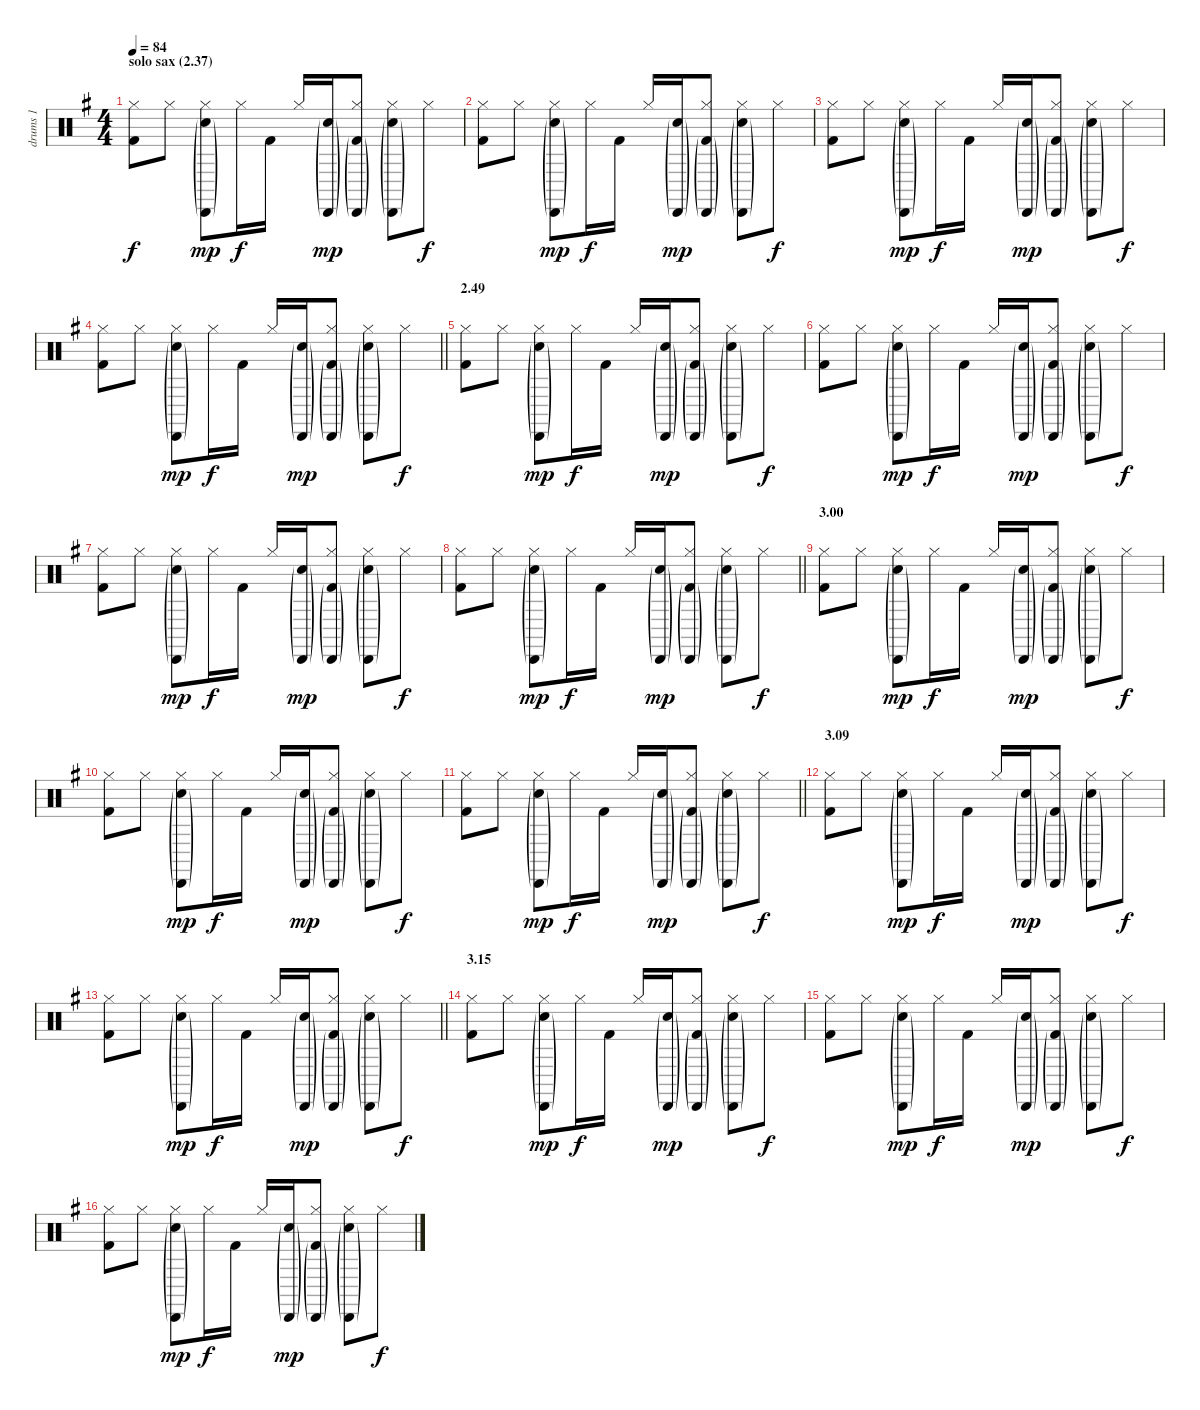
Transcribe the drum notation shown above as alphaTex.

\track ("drums 1" "drums 1") {instrument percussion}
\staff {score}
\articulation defaults
\ts (4 4)
\section ("" "solo sax (2.37)")
\tempo 84
\clef neutral
\ks g
("Hi-Hat (closed)" "Kick (hit) 2").8{dy f} "Hi-Hat (closed)".8 ("Cabasa (hit)"{g} "Hi-Hat (closed)" "Electric Snare (hit)"{g}).8{dy mp} "Hi-Hat (closed)".16{dy f} "Kick (hit) 2".16 "Hi-Hat (closed)".16 ("Cabasa (hit)"{g} "Electric Snare (hit)"{g}).16{dy mp} ("Cabasa (hit)"{g} "Hi-Hat (closed)" "Kick (hit) 2"{g}).8 ("Cabasa (hit)"{g} "Hi-Hat (closed)" "Electric Snare (hit)"{g}).8 "Hi-Hat (closed)".8{dy f} |
("Hi-Hat (closed)" "Kick (hit) 2").8 "Hi-Hat (closed)".8 ("Cabasa (hit)"{g} "Hi-Hat (closed)" "Electric Snare (hit)"{g}).8{dy mp} "Hi-Hat (closed)".16{dy f} "Kick (hit) 2".16 "Hi-Hat (closed)".16 ("Cabasa (hit)"{g} "Electric Snare (hit)"{g}).16{dy mp} ("Cabasa (hit)"{g} "Hi-Hat (closed)" "Kick (hit) 2"{g}).8 ("Cabasa (hit)"{g} "Hi-Hat (closed)" "Electric Snare (hit)"{g}).8 "Hi-Hat (closed)".8{dy f} |
("Hi-Hat (closed)" "Kick (hit) 2").8 "Hi-Hat (closed)".8 ("Cabasa (hit)"{g} "Hi-Hat (closed)" "Electric Snare (hit)"{g}).8{dy mp} "Hi-Hat (closed)".16{dy f} "Kick (hit) 2".16 "Hi-Hat (closed)".16 ("Cabasa (hit)"{g} "Electric Snare (hit)"{g}).16{dy mp} ("Cabasa (hit)"{g} "Hi-Hat (closed)" "Kick (hit) 2"{g}).8 ("Cabasa (hit)"{g} "Hi-Hat (closed)" "Electric Snare (hit)"{g}).8 "Hi-Hat (closed)".8{dy f} |
\barLineRight lightlight
("Hi-Hat (closed)" "Kick (hit) 2").8 "Hi-Hat (closed)".8 ("Cabasa (hit)"{g} "Hi-Hat (closed)" "Electric Snare (hit)"{g}).8{dy mp} "Hi-Hat (closed)".16{dy f} "Kick (hit) 2".16 "Hi-Hat (closed)".16 ("Cabasa (hit)"{g} "Electric Snare (hit)"{g}).16{dy mp} ("Cabasa (hit)"{g} "Hi-Hat (closed)" "Kick (hit) 2"{g}).8 ("Cabasa (hit)"{g} "Hi-Hat (closed)" "Electric Snare (hit)"{g}).8 "Hi-Hat (closed)".8{dy f} |
\section ("" "2.49")
("Hi-Hat (closed)" "Kick (hit) 2").8 "Hi-Hat (closed)".8 ("Cabasa (hit)"{g} "Hi-Hat (closed)" "Electric Snare (hit)"{g}).8{dy mp} "Hi-Hat (closed)".16{dy f} "Kick (hit) 2".16 "Hi-Hat (closed)".16 ("Cabasa (hit)"{g} "Electric Snare (hit)"{g}).16{dy mp} ("Cabasa (hit)"{g} "Hi-Hat (closed)" "Kick (hit) 2"{g}).8 ("Cabasa (hit)"{g} "Hi-Hat (closed)" "Electric Snare (hit)"{g}).8 "Hi-Hat (closed)".8{dy f} |
("Hi-Hat (closed)" "Kick (hit) 2").8 "Hi-Hat (closed)".8 ("Cabasa (hit)"{g} "Hi-Hat (closed)" "Electric Snare (hit)"{g}).8{dy mp} "Hi-Hat (closed)".16{dy f} "Kick (hit) 2".16 "Hi-Hat (closed)".16 ("Cabasa (hit)"{g} "Electric Snare (hit)"{g}).16{dy mp} ("Cabasa (hit)"{g} "Hi-Hat (closed)" "Kick (hit) 2"{g}).8 ("Cabasa (hit)"{g} "Hi-Hat (closed)" "Electric Snare (hit)"{g}).8 "Hi-Hat (closed)".8{dy f} |
("Hi-Hat (closed)" "Kick (hit) 2").8 "Hi-Hat (closed)".8 ("Cabasa (hit)"{g} "Hi-Hat (closed)" "Electric Snare (hit)"{g}).8{dy mp} "Hi-Hat (closed)".16{dy f} "Kick (hit) 2".16 "Hi-Hat (closed)".16 ("Cabasa (hit)"{g} "Electric Snare (hit)"{g}).16{dy mp} ("Cabasa (hit)"{g} "Hi-Hat (closed)" "Kick (hit) 2"{g}).8 ("Cabasa (hit)"{g} "Hi-Hat (closed)" "Electric Snare (hit)"{g}).8 "Hi-Hat (closed)".8{dy f} |
\barLineRight lightlight
("Hi-Hat (closed)" "Kick (hit) 2").8 "Hi-Hat (closed)".8 ("Cabasa (hit)"{g} "Hi-Hat (closed)" "Electric Snare (hit)"{g}).8{dy mp} "Hi-Hat (closed)".16{dy f} "Kick (hit) 2".16 "Hi-Hat (closed)".16 ("Cabasa (hit)"{g} "Electric Snare (hit)"{g}).16{dy mp} ("Cabasa (hit)"{g} "Hi-Hat (closed)" "Kick (hit) 2"{g}).8 ("Cabasa (hit)"{g} "Hi-Hat (closed)" "Electric Snare (hit)"{g}).8 "Hi-Hat (closed)".8{dy f} |
\section ("" "3.00")
("Hi-Hat (closed)" "Kick (hit) 2").8 "Hi-Hat (closed)".8 ("Cabasa (hit)"{g} "Hi-Hat (closed)" "Electric Snare (hit)"{g}).8{dy mp} "Hi-Hat (closed)".16{dy f} "Kick (hit) 2".16 "Hi-Hat (closed)".16 ("Cabasa (hit)"{g} "Electric Snare (hit)"{g}).16{dy mp} ("Cabasa (hit)"{g} "Hi-Hat (closed)" "Kick (hit) 2"{g}).8 ("Cabasa (hit)"{g} "Hi-Hat (closed)" "Electric Snare (hit)"{g}).8 "Hi-Hat (closed)".8{dy f} |
("Hi-Hat (closed)" "Kick (hit) 2").8 "Hi-Hat (closed)".8 ("Cabasa (hit)"{g} "Hi-Hat (closed)" "Electric Snare (hit)"{g}).8{dy mp} "Hi-Hat (closed)".16{dy f} "Kick (hit) 2".16 "Hi-Hat (closed)".16 ("Cabasa (hit)"{g} "Electric Snare (hit)"{g}).16{dy mp} ("Cabasa (hit)"{g} "Hi-Hat (closed)" "Kick (hit) 2"{g}).8 ("Cabasa (hit)"{g} "Hi-Hat (closed)" "Electric Snare (hit)"{g}).8 "Hi-Hat (closed)".8{dy f} |
\barLineRight lightlight
("Hi-Hat (closed)" "Kick (hit) 2").8 "Hi-Hat (closed)".8 ("Cabasa (hit)"{g} "Hi-Hat (closed)" "Electric Snare (hit)"{g}).8{dy mp} "Hi-Hat (closed)".16{dy f} "Kick (hit) 2".16 "Hi-Hat (closed)".16 ("Cabasa (hit)"{g} "Electric Snare (hit)"{g}).16{dy mp} ("Cabasa (hit)"{g} "Hi-Hat (closed)" "Kick (hit) 2"{g}).8 ("Cabasa (hit)"{g} "Hi-Hat (closed)" "Electric Snare (hit)"{g}).8 "Hi-Hat (closed)".8{dy f} |
\section ("" "3.09")
("Hi-Hat (closed)" "Kick (hit) 2").8 "Hi-Hat (closed)".8 ("Cabasa (hit)"{g} "Hi-Hat (closed)" "Electric Snare (hit)"{g}).8{dy mp} "Hi-Hat (closed)".16{dy f} "Kick (hit) 2".16 "Hi-Hat (closed)".16 ("Cabasa (hit)"{g} "Electric Snare (hit)"{g}).16{dy mp} ("Cabasa (hit)"{g} "Hi-Hat (closed)" "Kick (hit) 2"{g}).8 ("Cabasa (hit)"{g} "Hi-Hat (closed)" "Electric Snare (hit)"{g}).8 "Hi-Hat (closed)".8{dy f} |
\barLineRight lightlight
("Hi-Hat (closed)" "Kick (hit) 2").8 "Hi-Hat (closed)".8 ("Cabasa (hit)"{g} "Hi-Hat (closed)" "Electric Snare (hit)"{g}).8{dy mp} "Hi-Hat (closed)".16{dy f} "Kick (hit) 2".16 "Hi-Hat (closed)".16 ("Cabasa (hit)"{g} "Electric Snare (hit)"{g}).16{dy mp} ("Cabasa (hit)"{g} "Hi-Hat (closed)" "Kick (hit) 2"{g}).8 ("Cabasa (hit)"{g} "Hi-Hat (closed)" "Electric Snare (hit)"{g}).8 "Hi-Hat (closed)".8{dy f} |
\section ("" "3.15")
("Hi-Hat (closed)" "Kick (hit) 2").8 "Hi-Hat (closed)".8 ("Cabasa (hit)"{g} "Hi-Hat (closed)" "Electric Snare (hit)"{g}).8{dy mp} "Hi-Hat (closed)".16{dy f} "Kick (hit) 2".16 "Hi-Hat (closed)".16 ("Cabasa (hit)"{g} "Electric Snare (hit)"{g}).16{dy mp} ("Cabasa (hit)"{g} "Hi-Hat (closed)" "Kick (hit) 2"{g}).8 ("Cabasa (hit)"{g} "Hi-Hat (closed)" "Electric Snare (hit)"{g}).8 "Hi-Hat (closed)".8{dy f} |
("Hi-Hat (closed)" "Kick (hit) 2").8 "Hi-Hat (closed)".8 ("Cabasa (hit)"{g} "Hi-Hat (closed)" "Electric Snare (hit)"{g}).8{dy mp} "Hi-Hat (closed)".16{dy f} "Kick (hit) 2".16 "Hi-Hat (closed)".16 ("Cabasa (hit)"{g} "Electric Snare (hit)"{g}).16{dy mp} ("Cabasa (hit)"{g} "Hi-Hat (closed)" "Kick (hit) 2"{g}).8 ("Cabasa (hit)"{g} "Hi-Hat (closed)" "Electric Snare (hit)"{g}).8 "Hi-Hat (closed)".8{dy f} |
("Hi-Hat (closed)" "Kick (hit) 2").8 "Hi-Hat (closed)".8 ("Cabasa (hit)"{g} "Hi-Hat (closed)" "Electric Snare (hit)"{g}).8{dy mp} "Hi-Hat (closed)".16{dy f} "Kick (hit) 2".16 "Hi-Hat (closed)".16 ("Cabasa (hit)"{g} "Electric Snare (hit)"{g}).16{dy mp} ("Cabasa (hit)"{g} "Hi-Hat (closed)" "Kick (hit) 2"{g}).8 ("Cabasa (hit)"{g} "Hi-Hat (closed)" "Electric Snare (hit)"{g}).8 "Hi-Hat (closed)".8{dy f}
